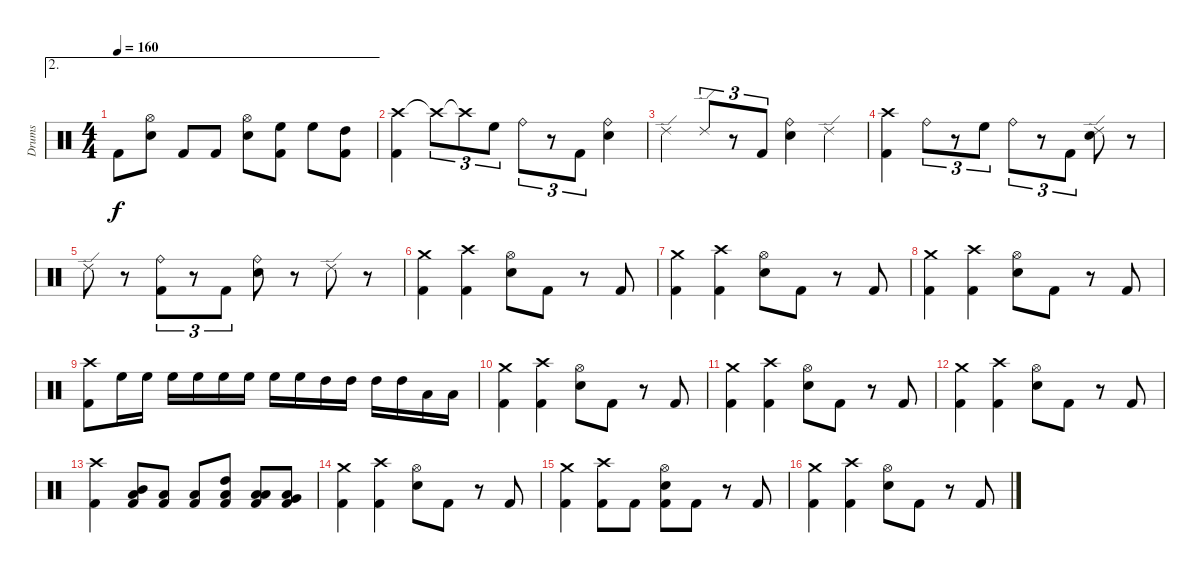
\track ("Drums" "Drums") {instrument percussion}
\staff {score}
\articulation defaults
\ae 2
\ts (4 4)
\tempo 160
\clef neutral
\ks c "Kick (hit) 2".8{dy f}
("Snare (hit) 2" "Hi-Hat (open)").8 "Kick (hit) 2".8 "Kick (hit) 2".8 ("Snare (hit) 2" "Hi-Hat (open)").8 ("High Floor Tom (hit)" "Kick (hit) 2").8 "High Floor Tom (hit)".8 ("High Tom (hit)" "Kick (hit) 2").8 |
("Crash high (hit)" "Kick (hit) 2").4 "Crash high (hit)"{t}.8{tu (3 2)} "Crash high (hit)"{t}.8{tu (3 2)} "High Floor Tom (hit)".8{tu (3 2)} "Ride (bell)".8{tu (3 2)} r.8{tu (3 2)} "Kick (hit) 2".8{tu (3 2)} ("Snare (hit) 2" "Ride (bell)").4 |
"Ride (edge) 2".4 "Ride (edge) 2".8{tu (3 2)} r.8{tu (3 2)} "Kick (hit) 2".8{tu (3 2)} ("Snare (hit) 2" "Ride (bell)").4 "Ride (edge) 2".4 |
("Crash high (hit)" "Kick (hit) 2").4 "Ride (bell)".8{tu (3 2)} r.8{tu (3 2)} "High Floor Tom (hit)".8{tu (3 2)} "Ride (bell)".8{tu (3 2)} r.8{tu (3 2)} "Kick (hit) 2".8{tu (3 2)} ("Snare (hit) 2" "Ride (edge) 2").8 r.8 |
"Ride (edge) 2".8 r.8 ("Ride (bell)" "Kick (hit) 2").8{tu (3 2)} r.8{tu (3 2)} "Kick (hit) 2".8{tu (3 2)} ("Snare (hit) 2" "Ride (bell)").8 r.8 "Ride (edge) 2".8 r.8 |
("Crash medium (hit)" "Kick (hit) 2").4 ("Crash high (hit)" "Kick (hit) 2").4 ("Snare (hit) 2" "Hi-Hat (open)").8 "Kick (hit) 2".8 r.8 "Kick (hit) 2".8 |
("Crash medium (hit)" "Kick (hit) 2").4 ("Crash high (hit)" "Kick (hit) 2").4 ("Snare (hit) 2" "Hi-Hat (open)").8 "Kick (hit) 2".8 r.8 "Kick (hit) 2".8 |
("Crash medium (hit)" "Kick (hit) 2").4 ("Crash high (hit)" "Kick (hit) 2").4 ("Snare (hit) 2" "Hi-Hat (open)").8 "Kick (hit) 2".8 r.8 "Kick (hit) 2".8 |
("Crash high (hit)" "Kick (hit) 2").8 "High Floor Tom (hit)".16 "High Floor Tom (hit)".16 "High Floor Tom (hit)".16 "High Floor Tom (hit)".16 "High Floor Tom (hit)".16 "High Floor Tom (hit)".16 "High Floor Tom (hit)".16 "High Floor Tom (hit)".16 "High Tom (hit)".16 "High Tom (hit)".16 "High Tom (hit)".16 "High Tom (hit)".16 "Low Tom (hit)".16 "Low Floor Tom (hit)".16 |
("Crash medium (hit)" "Kick (hit) 2").4 ("Crash high (hit)" "Kick (hit) 2").4 ("Snare (hit) 2" "Hi-Hat (open)").8 "Kick (hit) 2".8 r.8 "Kick (hit) 2".8 |
("Crash medium (hit)" "Kick (hit) 2").4 ("Crash high (hit)" "Kick (hit) 2").4 ("Snare (hit) 2" "Hi-Hat (open)").8 "Kick (hit) 2".8 r.8 "Kick (hit) 2".8 |
("Crash medium (hit)" "Kick (hit) 2").4 ("Crash high (hit)" "Kick (hit) 2").4 ("Snare (hit) 2" "Hi-Hat (open)").8 "Kick (hit) 2".8 r.8 "Kick (hit) 2".8 |
("Crash high (hit)" "Kick (hit) 2").4 ("Mid Tom (hit)" "Low Floor Tom (hit)" "Kick (hit) 2").8 ("Low Floor Tom (hit)" "Kick (hit) 2").8 ("Low Floor Tom (hit)" "Kick (hit) 2").8 ("High Tom (hit)" "Low Floor Tom (hit)" "Kick (hit) 2").8 ("Low Tom (hit)" "Low Floor Tom (hit)" "Kick (hit) 2").8 ("Very Low Tom (hit)" "Low Floor Tom (hit)" "Kick (hit) 2").8 |
("Crash medium (hit)" "Kick (hit) 2").4 ("Crash high (hit)" "Kick (hit) 2").4 ("Snare (hit) 2" "Hi-Hat (open)").8 "Kick (hit) 2".8 r.8 "Kick (hit) 2".8 |
("Crash medium (hit)" "Kick (hit) 2").4 ("Crash high (hit)" "Kick (hit) 2").8 "Kick (hit) 2".8 ("Snare (hit) 2" "Hi-Hat (open)" "Kick (hit) 2").8 "Kick (hit) 2".8 r.8 "Kick (hit) 2".8 |
("Crash medium (hit)" "Kick (hit) 2").4 ("Crash high (hit)" "Kick (hit) 2").4 ("Snare (hit) 2" "Hi-Hat (open)").8 "Kick (hit) 2".8 r.8 "Kick (hit) 2".8
